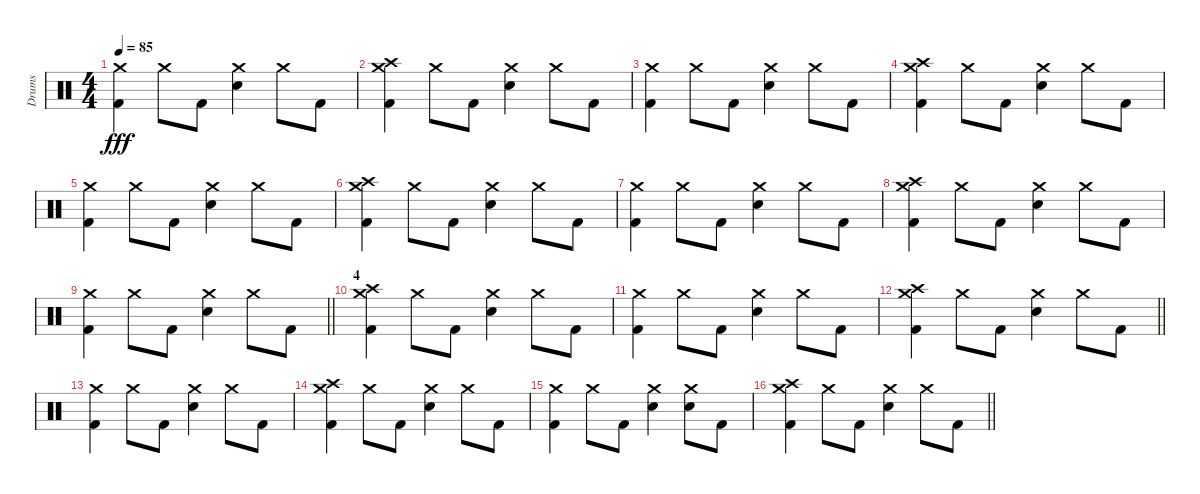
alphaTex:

\track ("Drums" "Drums") {instrument percussion}
\staff {score}
\articulation defaults
\ts (4 4)
\tempo 85
\clef neutral
\ks c
("Crash medium (hit)" "Kick (hit) 2").4{dy fff} "Crash medium (hit)".8 "Kick (hit) 2".8 ("Crash medium (hit)" "Snare (hit) 2").4 "Crash medium (hit)".8 "Kick (hit) 2".8 |
("Crash high (hit)" "Crash medium (hit)" "Kick (hit) 2").4 "Crash medium (hit)".8 "Kick (hit) 2".8 ("Crash medium (hit)" "Snare (hit) 2").4 "Crash medium (hit)".8 "Kick (hit) 2".8 |
("Crash medium (hit)" "Kick (hit) 2").4 "Crash medium (hit)".8 "Kick (hit) 2".8 ("Crash medium (hit)" "Snare (hit) 2").4 "Crash medium (hit)".8 "Kick (hit) 2".8 |
("Crash high (hit)" "Crash medium (hit)" "Kick (hit) 2").4 "Crash medium (hit)".8 "Kick (hit) 2".8 ("Crash medium (hit)" "Snare (hit) 2").4 "Crash medium (hit)".8 "Kick (hit) 2".8 |
("Crash medium (hit)" "Kick (hit) 2").4 "Crash medium (hit)".8 "Kick (hit) 2".8 ("Crash medium (hit)" "Snare (hit) 2").4 "Crash medium (hit)".8 "Kick (hit) 2".8 |
("Crash high (hit)" "Crash medium (hit)" "Kick (hit) 2").4 "Crash medium (hit)".8 "Kick (hit) 2".8 ("Crash medium (hit)" "Snare (hit) 2").4 "Crash medium (hit)".8 "Kick (hit) 2".8 |
("Crash medium (hit)" "Kick (hit) 2").4 "Crash medium (hit)".8 "Kick (hit) 2".8 ("Crash medium (hit)" "Snare (hit) 2").4 "Crash medium (hit)".8 "Kick (hit) 2".8 |
("Crash high (hit)" "Crash medium (hit)" "Kick (hit) 2").4 "Crash medium (hit)".8 "Kick (hit) 2".8 ("Crash medium (hit)" "Snare (hit) 2").4 "Crash medium (hit)".8 "Kick (hit) 2".8 |
\barLineRight lightlight
("Crash medium (hit)" "Kick (hit) 2").4 "Crash medium (hit)".8 "Kick (hit) 2".8 ("Crash medium (hit)" "Snare (hit) 2").4 "Crash medium (hit)".8 "Kick (hit) 2".8 |
\section ("" "4")
("Crash high (hit)" "Crash medium (hit)" "Kick (hit) 2").4 "Crash medium (hit)".8 "Kick (hit) 2".8 ("Crash medium (hit)" "Snare (hit) 2").4 "Crash medium (hit)".8 "Kick (hit) 2".8 |
("Crash medium (hit)" "Kick (hit) 2").4 "Crash medium (hit)".8 "Kick (hit) 2".8 ("Crash medium (hit)" "Snare (hit) 2").4 "Crash medium (hit)".8 "Kick (hit) 2".8 |
\barLineRight lightlight
("Crash high (hit)" "Crash medium (hit)" "Kick (hit) 2").4 "Crash medium (hit)".8 "Kick (hit) 2".8 ("Crash medium (hit)" "Snare (hit) 2").4 "Crash medium (hit)".8 "Kick (hit) 2".8 |
("Crash medium (hit)" "Kick (hit) 2").4 "Crash medium (hit)".8 "Kick (hit) 2".8 ("Crash medium (hit)" "Snare (hit) 2").4 "Crash medium (hit)".8 "Kick (hit) 2".8 |
("Crash high (hit)" "Crash medium (hit)" "Kick (hit) 2").4 "Crash medium (hit)".8 "Kick (hit) 2".8 ("Crash medium (hit)" "Snare (hit) 2").4 "Crash medium (hit)".8 "Kick (hit) 2".8 |
("Crash medium (hit)" "Kick (hit) 2").4 "Crash medium (hit)".8 "Kick (hit) 2".8 ("Crash medium (hit)" "Snare (hit) 2").4 ("Crash medium (hit)" "Snare (hit) 2").8 "Kick (hit) 2".8 |
\barLineRight lightlight
("Crash high (hit)" "Crash medium (hit)" "Kick (hit) 2").4 "Crash medium (hit)".8 "Kick (hit) 2".8 ("Crash medium (hit)" "Snare (hit) 2").4 "Crash medium (hit)".8 "Kick (hit) 2".8
